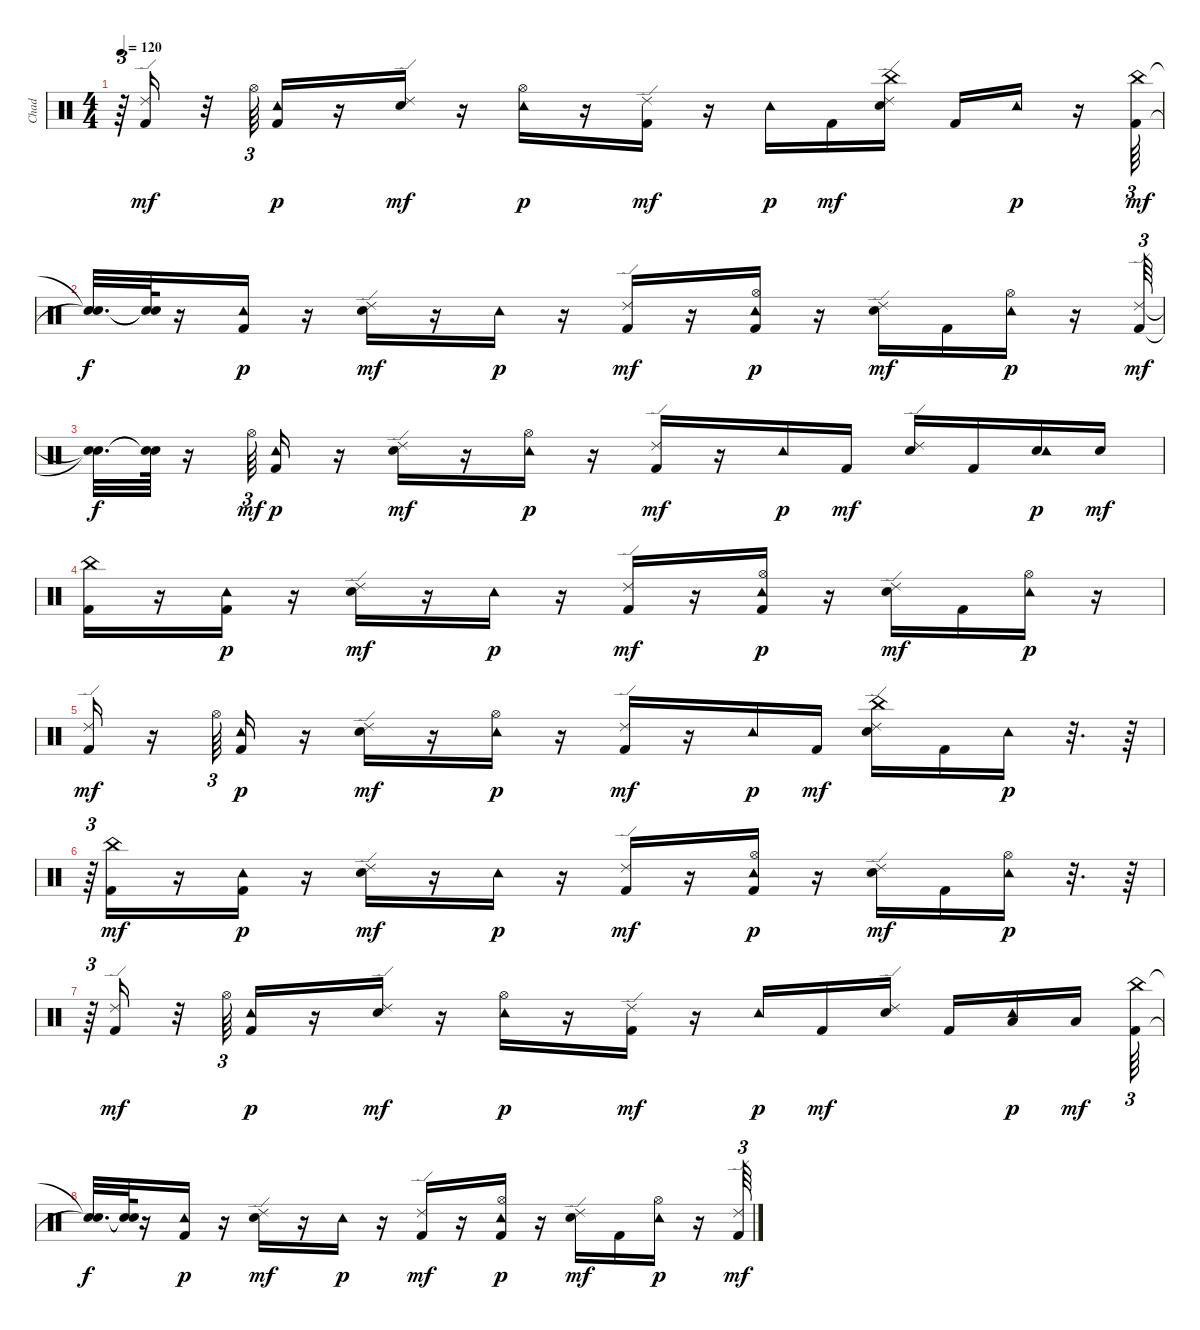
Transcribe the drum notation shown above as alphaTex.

\track ("Chad" "Chad") {instrument percussion}
\staff {score}
\articulation defaults
\ts (4 4)
\tempo 120
\clef neutral
\ks c
r.64{tu (3 2) dy p} ("Kick (hit) 2" "Ride (edge) 2").16{dy mf} r.32 "Hi-Hat (open)".64{tu (3 2)} ("Kick (hit) 2" "Tambourine (hit)").16{dy p} r.16 ("Snare (hit) 2" "Ride (edge) 2").16{dy mf} r.16 ("Hi-Hat (open)" "Tambourine (hit)").16{dy p} r.16 ("Kick (hit) 2" "Ride (edge) 2").16{dy mf} r.16 "Tambourine (hit)".16{dy p} "Kick (hit) 2".16{dy mf} ("Snare (hit) 2" "China (hit)" "Ride (edge) 2").16 "Kick (hit) 2".16 "Tambourine (hit)".16{dy p} r.16 ("Kick (hit) 2" "China (hit)").64{tu (3 2) dy mf} |
("Snare (hit)"{t} "Snare (hit)"{t}).32{d dy f} ("Snare (hit)"{t} "Snare (hit)"{t}).64 r.16 ("Kick (hit) 2" "Tambourine (hit)").16{dy p} r.16 ("Snare (hit) 2" "Ride (edge) 2").16{dy mf} r.16 "Tambourine (hit)".16{dy p} r.16 ("Kick (hit) 2" "Ride (edge) 2").16{dy mf} r.16 ("Kick (hit) 2" "Hi-Hat (open)" "Tambourine (hit)").16{dy p} r.16 ("Snare (hit) 2" "Ride (edge) 2").16{dy mf} "Kick (hit) 2".16 ("Hi-Hat (open)" "Tambourine (hit)").16{dy p} r.16 ("Kick (hit) 2" "Ride (edge) 2").64{tu (3 2) dy mf} |
("Snare (hit)"{t} "Snare (hit)"{t}).32{d dy f} ("Snare (hit)"{t} "Snare (hit)"{t}).64 r.16 "Hi-Hat (open)".64{tu (3 2) dy mf} ("Kick (hit) 2" "Tambourine (hit)").16{dy p} r.16 ("Snare (hit) 2" "Ride (edge) 2").16{dy mf} r.16 ("Hi-Hat (open)" "Tambourine (hit)").16{dy p} r.16 ("Kick (hit) 2" "Ride (edge) 2").16{dy mf} r.16 "Tambourine (hit)".16{dy p} "Kick (hit) 2".16{dy mf} ("Snare (hit) 2" "Ride (edge) 2").16 "Kick (hit) 2".16 ("Snare (hit) 2" "Tambourine (hit)").16{dy p} "Snare (hit) 2".16{dy mf} |
("Kick (hit) 2" "China (hit)").16 r.16 ("Kick (hit) 2" "Tambourine (hit)").16{dy p} r.16 ("Snare (hit) 2" "Ride (edge) 2").16{dy mf} r.16 "Tambourine (hit)".16{dy p} r.16 ("Kick (hit) 2" "Ride (edge) 2").16{dy mf} r.16 ("Kick (hit) 2" "Hi-Hat (open)" "Tambourine (hit)").16{dy p} r.16 ("Snare (hit) 2" "Ride (edge) 2").16{dy mf} "Kick (hit) 2".16 ("Hi-Hat (open)" "Tambourine (hit)").16{dy p} r.16 |
("Kick (hit) 2" "Ride (edge) 2").16{dy mf} r.16 "Hi-Hat (open)".64{tu (3 2)} ("Kick (hit) 2" "Tambourine (hit)").16{dy p} r.16 ("Snare (hit) 2" "Ride (edge) 2").16{dy mf} r.16 ("Hi-Hat (open)" "Tambourine (hit)").16{dy p} r.16 ("Kick (hit) 2" "Ride (edge) 2").16{dy mf} r.16 "Tambourine (hit)".16{dy p} "Kick (hit) 2".16{dy mf} ("Snare (hit) 2" "China (hit)" "Ride (edge) 2").16 "Kick (hit) 2".16 "Tambourine (hit)".16{dy p} r.32{d} r.64 |
r.64{tu (3 2)} ("Kick (hit) 2" "China (hit)").16{dy mf} r.16 ("Kick (hit) 2" "Tambourine (hit)").16{dy p} r.16 ("Snare (hit) 2" "Ride (edge) 2").16{dy mf} r.16 "Tambourine (hit)".16{dy p} r.16 ("Kick (hit) 2" "Ride (edge) 2").16{dy mf} r.16 ("Kick (hit) 2" "Hi-Hat (open)" "Tambourine (hit)").16{dy p} r.16 ("Snare (hit) 2" "Ride (edge) 2").16{dy mf} "Kick (hit) 2".16 ("Hi-Hat (open)" "Tambourine (hit)").16{dy p} r.32{d} r.64 |
r.64{tu (3 2)} ("Kick (hit) 2" "Ride (edge) 2").16{dy mf} r.32 "Hi-Hat (open)".64{tu (3 2)} ("Kick (hit) 2" "Tambourine (hit)").16{dy p} r.16 ("Snare (hit) 2" "Ride (edge) 2").16{dy mf} r.16 ("Hi-Hat (open)" "Tambourine (hit)").16{dy p} r.16 ("Kick (hit) 2" "Ride (edge) 2").16{dy mf} r.16 "Tambourine (hit)".16{dy p} "Kick (hit) 2".16{dy mf} ("Snare (hit) 2" "Ride (edge) 2").16 "Kick (hit) 2".16 ("Low Floor Tom (hit)" "Tambourine (hit)").16{dy p} "Low Floor Tom (hit)".16{dy mf beam splitsecondary} ("Kick (hit) 2" "China (hit)").64{tu (3 2)} |
("Snare (hit)"{t} "Snare (hit)"{t}).32{d dy f} ("Snare (hit)"{t} "Snare (hit)"{t}).64 r.16 ("Kick (hit) 2" "Tambourine (hit)").16{dy p} r.16 ("Snare (hit) 2" "Ride (edge) 2").16{dy mf} r.16 "Tambourine (hit)".16{dy p} r.16 ("Kick (hit) 2" "Ride (edge) 2").16{dy mf} r.16 ("Kick (hit) 2" "Hi-Hat (open)" "Tambourine (hit)").16{dy p} r.16 ("Snare (hit) 2" "Ride (edge) 2").16{dy mf} "Kick (hit) 2".16 ("Hi-Hat (open)" "Tambourine (hit)").16{dy p} r.16 ("Kick (hit) 2" "Ride (edge) 2").64{tu (3 2) dy mf}
